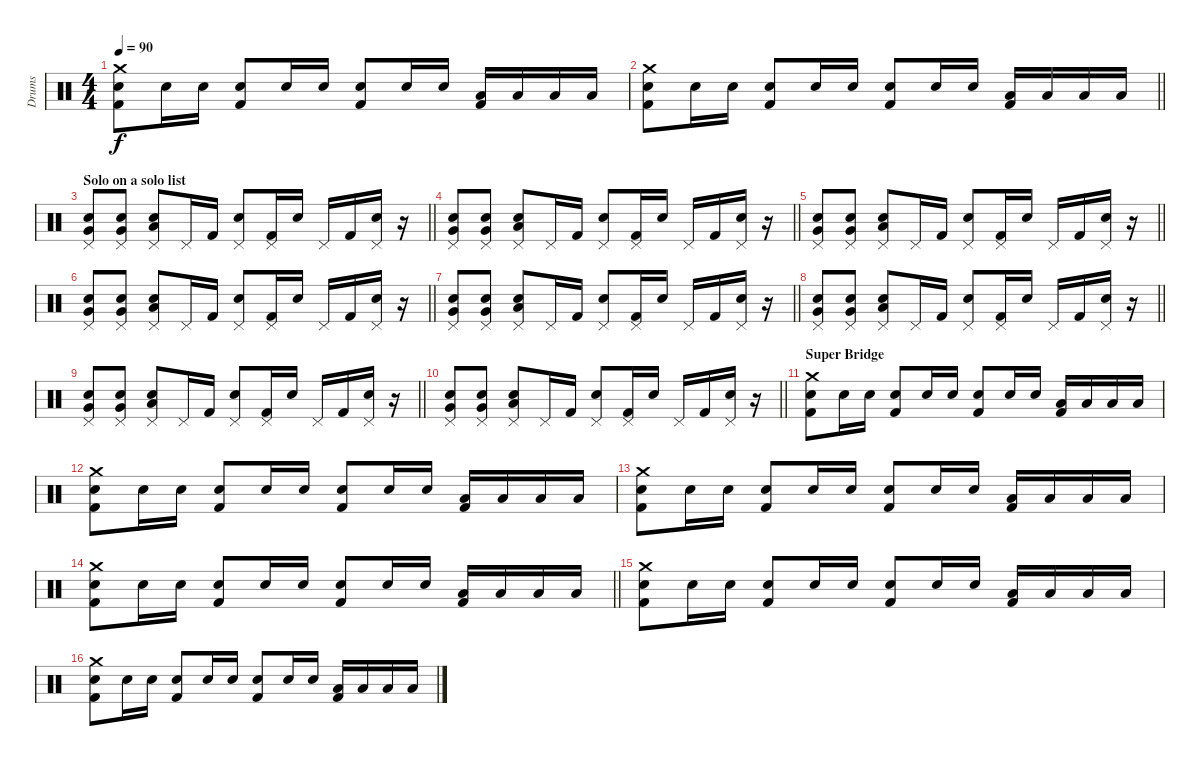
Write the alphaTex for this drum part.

\track ("Drums" "Drums") {instrument percussion}
\staff {score}
\articulation defaults
\ts (4 4)
\tempo 90
\clef neutral
\ks c
("Kick (hit) 2" "Snare (hit) 2" "Crash medium (hit)").8{dy f} "Snare (hit) 2".16 "Snare (hit) 2".16 ("Kick (hit) 2" "Snare (hit) 2").8 "Snare (hit) 2".16 "Snare (hit) 2".16 ("Kick (hit) 2" "Snare (hit) 2").8 "Snare (hit) 2".16 "Snare (hit) 2".16 ("Kick (hit) 2" "Low Floor Tom (hit)").16 "Low Floor Tom (hit)".16 "Low Floor Tom (hit)".16 "Low Floor Tom (hit)".16 |
\barLineRight lightlight
("Kick (hit) 2" "Snare (hit) 2" "Crash medium (hit)").8 "Snare (hit) 2".16 "Snare (hit) 2".16 ("Kick (hit) 2" "Snare (hit) 2").8 "Snare (hit) 2".16 "Snare (hit) 2".16 ("Kick (hit) 2" "Snare (hit) 2").8 "Snare (hit) 2".16 "Snare (hit) 2".16 ("Kick (hit) 2" "Low Floor Tom (hit)").16 "Low Floor Tom (hit)".16 "Low Floor Tom (hit)".16 "Low Floor Tom (hit)".16 |
\section ("" "Solo on a solo list")
\barLineRight lightlight
("Very Low Tom (hit)" "Snare (hit) 2" "Pedal Hi-Hat (hit)").8 ("Very Low Tom (hit)" "Snare (hit) 2" "Pedal Hi-Hat (hit)").8 ("Low Floor Tom (hit)" "Snare (hit) 2" "Pedal Hi-Hat (hit)").8 "Pedal Hi-Hat (hit)".16 "Kick (hit) 2".16 ("Snare (hit) 2" "Pedal Hi-Hat (hit)").8 ("Kick (hit) 2" "Pedal Hi-Hat (hit)").16 "Snare (hit) 2".16 "Pedal Hi-Hat (hit)".16 "Kick (hit) 2".16 ("Snare (hit) 2" "Pedal Hi-Hat (hit)").16 r.16 |
\barLineRight lightlight
("Very Low Tom (hit)" "Snare (hit) 2" "Pedal Hi-Hat (hit)").8 ("Very Low Tom (hit)" "Snare (hit) 2" "Pedal Hi-Hat (hit)").8 ("Low Floor Tom (hit)" "Snare (hit) 2" "Pedal Hi-Hat (hit)").8 "Pedal Hi-Hat (hit)".16 "Kick (hit) 2".16 ("Snare (hit) 2" "Pedal Hi-Hat (hit)").8 ("Kick (hit) 2" "Pedal Hi-Hat (hit)").16 "Snare (hit) 2".16 "Pedal Hi-Hat (hit)".16 "Kick (hit) 2".16 ("Snare (hit) 2" "Pedal Hi-Hat (hit)").16 r.16 |
\barLineRight lightlight
("Very Low Tom (hit)" "Snare (hit) 2" "Pedal Hi-Hat (hit)").8 ("Very Low Tom (hit)" "Snare (hit) 2" "Pedal Hi-Hat (hit)").8 ("Low Floor Tom (hit)" "Snare (hit) 2" "Pedal Hi-Hat (hit)").8 "Pedal Hi-Hat (hit)".16 "Kick (hit) 2".16 ("Snare (hit) 2" "Pedal Hi-Hat (hit)").8 ("Kick (hit) 2" "Pedal Hi-Hat (hit)").16 "Snare (hit) 2".16 "Pedal Hi-Hat (hit)".16 "Kick (hit) 2".16 ("Snare (hit) 2" "Pedal Hi-Hat (hit)").16 r.16 |
\barLineRight lightlight
("Very Low Tom (hit)" "Snare (hit) 2" "Pedal Hi-Hat (hit)").8 ("Very Low Tom (hit)" "Snare (hit) 2" "Pedal Hi-Hat (hit)").8 ("Low Floor Tom (hit)" "Snare (hit) 2" "Pedal Hi-Hat (hit)").8 "Pedal Hi-Hat (hit)".16 "Kick (hit) 2".16 ("Snare (hit) 2" "Pedal Hi-Hat (hit)").8 ("Kick (hit) 2" "Pedal Hi-Hat (hit)").16 "Snare (hit) 2".16 "Pedal Hi-Hat (hit)".16 "Kick (hit) 2".16 ("Snare (hit) 2" "Pedal Hi-Hat (hit)").16 r.16 |
\barLineRight lightlight
("Very Low Tom (hit)" "Snare (hit) 2" "Pedal Hi-Hat (hit)").8 ("Very Low Tom (hit)" "Snare (hit) 2" "Pedal Hi-Hat (hit)").8 ("Low Floor Tom (hit)" "Snare (hit) 2" "Pedal Hi-Hat (hit)").8 "Pedal Hi-Hat (hit)".16 "Kick (hit) 2".16 ("Snare (hit) 2" "Pedal Hi-Hat (hit)").8 ("Kick (hit) 2" "Pedal Hi-Hat (hit)").16 "Snare (hit) 2".16 "Pedal Hi-Hat (hit)".16 "Kick (hit) 2".16 ("Snare (hit) 2" "Pedal Hi-Hat (hit)").16 r.16 |
\barLineRight lightlight
("Very Low Tom (hit)" "Snare (hit) 2" "Pedal Hi-Hat (hit)").8 ("Very Low Tom (hit)" "Snare (hit) 2" "Pedal Hi-Hat (hit)").8 ("Low Floor Tom (hit)" "Snare (hit) 2" "Pedal Hi-Hat (hit)").8 "Pedal Hi-Hat (hit)".16 "Kick (hit) 2".16 ("Snare (hit) 2" "Pedal Hi-Hat (hit)").8 ("Kick (hit) 2" "Pedal Hi-Hat (hit)").16 "Snare (hit) 2".16 "Pedal Hi-Hat (hit)".16 "Kick (hit) 2".16 ("Snare (hit) 2" "Pedal Hi-Hat (hit)").16 r.16 |
\barLineRight lightlight
("Very Low Tom (hit)" "Snare (hit) 2" "Pedal Hi-Hat (hit)").8 ("Very Low Tom (hit)" "Snare (hit) 2" "Pedal Hi-Hat (hit)").8 ("Low Floor Tom (hit)" "Snare (hit) 2" "Pedal Hi-Hat (hit)").8 "Pedal Hi-Hat (hit)".16 "Kick (hit) 2".16 ("Snare (hit) 2" "Pedal Hi-Hat (hit)").8 ("Kick (hit) 2" "Pedal Hi-Hat (hit)").16 "Snare (hit) 2".16 "Pedal Hi-Hat (hit)".16 "Kick (hit) 2".16 ("Snare (hit) 2" "Pedal Hi-Hat (hit)").16 r.16 |
\barLineRight lightlight
("Very Low Tom (hit)" "Snare (hit) 2" "Pedal Hi-Hat (hit)").8 ("Very Low Tom (hit)" "Snare (hit) 2" "Pedal Hi-Hat (hit)").8 ("Low Floor Tom (hit)" "Snare (hit) 2" "Pedal Hi-Hat (hit)").8 "Pedal Hi-Hat (hit)".16 "Kick (hit) 2".16 ("Snare (hit) 2" "Pedal Hi-Hat (hit)").8 ("Kick (hit) 2" "Pedal Hi-Hat (hit)").16 "Snare (hit) 2".16 "Pedal Hi-Hat (hit)".16 "Kick (hit) 2".16 ("Snare (hit) 2" "Pedal Hi-Hat (hit)").16 r.16 |
\section ("" "Super Bridge")
("Kick (hit) 2" "Snare (hit) 2" "Crash medium (hit)").8 "Snare (hit) 2".16 "Snare (hit) 2".16 ("Kick (hit) 2" "Snare (hit) 2").8 "Snare (hit) 2".16 "Snare (hit) 2".16 ("Kick (hit) 2" "Snare (hit) 2").8 "Snare (hit) 2".16 "Snare (hit) 2".16 ("Kick (hit) 2" "Low Floor Tom (hit)").16 "Low Floor Tom (hit)".16 "Low Floor Tom (hit)".16 "Low Floor Tom (hit)".16 |
("Kick (hit) 2" "Snare (hit) 2" "Crash medium (hit)").8 "Snare (hit) 2".16 "Snare (hit) 2".16 ("Kick (hit) 2" "Snare (hit) 2").8 "Snare (hit) 2".16 "Snare (hit) 2".16 ("Kick (hit) 2" "Snare (hit) 2").8 "Snare (hit) 2".16 "Snare (hit) 2".16 ("Kick (hit) 2" "Low Floor Tom (hit)").16 "Low Floor Tom (hit)".16 "Low Floor Tom (hit)".16 "Low Floor Tom (hit)".16 |
("Kick (hit) 2" "Snare (hit) 2" "Crash medium (hit)").8 "Snare (hit) 2".16 "Snare (hit) 2".16 ("Kick (hit) 2" "Snare (hit) 2").8 "Snare (hit) 2".16 "Snare (hit) 2".16 ("Kick (hit) 2" "Snare (hit) 2").8 "Snare (hit) 2".16 "Snare (hit) 2".16 ("Kick (hit) 2" "Low Floor Tom (hit)").16 "Low Floor Tom (hit)".16 "Low Floor Tom (hit)".16 "Low Floor Tom (hit)".16 |
\barLineRight lightlight
("Kick (hit) 2" "Snare (hit) 2" "Crash medium (hit)").8 "Snare (hit) 2".16 "Snare (hit) 2".16 ("Kick (hit) 2" "Snare (hit) 2").8 "Snare (hit) 2".16 "Snare (hit) 2".16 ("Kick (hit) 2" "Snare (hit) 2").8 "Snare (hit) 2".16 "Snare (hit) 2".16 ("Kick (hit) 2" "Low Floor Tom (hit)").16 "Low Floor Tom (hit)".16 "Low Floor Tom (hit)".16 "Low Floor Tom (hit)".16 |
("Kick (hit) 2" "Snare (hit) 2" "Crash medium (hit)").8 "Snare (hit) 2".16 "Snare (hit) 2".16 ("Kick (hit) 2" "Snare (hit) 2").8 "Snare (hit) 2".16 "Snare (hit) 2".16 ("Kick (hit) 2" "Snare (hit) 2").8 "Snare (hit) 2".16 "Snare (hit) 2".16 ("Kick (hit) 2" "Low Floor Tom (hit)").16 "Low Floor Tom (hit)".16 "Low Floor Tom (hit)".16 "Low Floor Tom (hit)".16 |
("Kick (hit) 2" "Snare (hit) 2" "Crash medium (hit)").8 "Snare (hit) 2".16 "Snare (hit) 2".16 ("Kick (hit) 2" "Snare (hit) 2").8 "Snare (hit) 2".16 "Snare (hit) 2".16 ("Kick (hit) 2" "Snare (hit) 2").8 "Snare (hit) 2".16 "Snare (hit) 2".16 ("Kick (hit) 2" "Low Floor Tom (hit)").16 "Low Floor Tom (hit)".16 "Low Floor Tom (hit)".16 "Low Floor Tom (hit)".16
